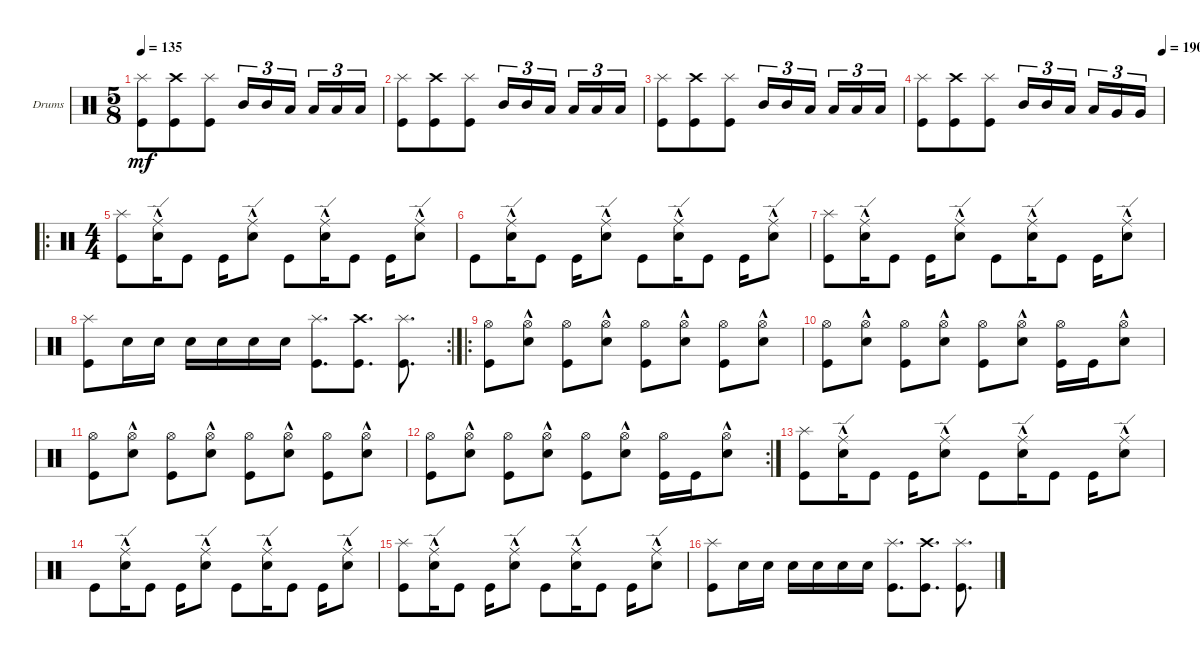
\bracketExtendMode groupsimilarinstruments
\firstSystemTrackNameOrientation horizontal
\otherSystemsTrackNameOrientation horizontal
\track ("Drumkit" "Drums") {instrument percussion}
\staff {score}
\articulation defaults
\ts (5 8)
\tempo 135
\clef neutral
\ks c
("Kick (hit)" "Splash (hit)").8{dy mf} ("Kick (hit)" "Crash high (hit)").8 ("Kick (hit)" "Splash (hit)").8 "Mid Tom (hit)".16{tu (3 2)} "Mid Tom (hit)".16{tu (3 2)} "Low Tom (hit)".16{tu (3 2)} "Low Tom (hit)".16{tu (3 2)} "Low Tom (hit)".16{tu (3 2)} "Low Tom (hit)".16{tu (3 2)} |
("Kick (hit)" "Splash (hit)").8 ("Kick (hit)" "Crash high (hit)").8 ("Kick (hit)" "Splash (hit)").8 "Mid Tom (hit)".16{tu (3 2)} "Mid Tom (hit)".16{tu (3 2)} "Low Tom (hit)".16{tu (3 2)} "Low Tom (hit)".16{tu (3 2)} "Low Tom (hit)".16{tu (3 2)} "Low Tom (hit)".16{tu (3 2)} |
("Kick (hit)" "Splash (hit)").8 ("Kick (hit)" "Crash high (hit)").8 ("Kick (hit)" "Splash (hit)").8 "Mid Tom (hit)".16{tu (3 2)} "Mid Tom (hit)".16{tu (3 2)} "Low Tom (hit)".16{tu (3 2)} "Low Tom (hit)".16{tu (3 2)} "Low Tom (hit)".16{tu (3 2)} "Low Tom (hit)".16{tu (3 2)} |
\tempo (190 1)
("Kick (hit)" "Splash (hit)").8 ("Kick (hit)" "Crash high (hit)").8 ("Kick (hit)" "Splash (hit)").8 "Mid Tom (hit)".16{tu (3 2)} "Mid Tom (hit)".16{tu (3 2)} "Low Tom (hit)".16{tu (3 2)} "Low Tom (hit)".16{tu (3 2)} "Very Low Tom (hit)".16{tu (3 2)} "Very Low Tom (hit)".16{tu (3 2)} |
\ro
\ts (4 4)
("Kick (hit)" "Splash (hit)").8 ("Snare (hit) 2"{hac} "Ride (edge)").16 "Kick (hit)".8 "Kick (hit)".16 ("Snare (hit) 2"{hac} "Ride (edge)").8 "Kick (hit)".8 ("Snare (hit) 2"{hac} "Ride (edge)").16 "Kick (hit)".8 "Kick (hit)".16 ("Snare (hit) 2"{hac} "Ride (edge)").8 |
"Kick (hit)".8 ("Snare (hit) 2"{hac} "Ride (edge)").16 "Kick (hit)".8 "Kick (hit)".16 ("Snare (hit) 2"{hac} "Ride (edge)").8 "Kick (hit)".8 ("Snare (hit) 2"{hac} "Ride (edge)").16 "Kick (hit)".8 "Kick (hit)".16 ("Snare (hit) 2"{hac} "Ride (edge)").8 |
("Kick (hit)" "Splash (hit)").8 ("Snare (hit) 2"{hac} "Ride (edge)").16 "Kick (hit)".8 "Kick (hit)".16 ("Snare (hit) 2"{hac} "Ride (edge)").8 "Kick (hit)".8 ("Snare (hit) 2"{hac} "Ride (edge)").16 "Kick (hit)".8 "Kick (hit)".16 ("Snare (hit) 2"{hac} "Ride (edge)").8 |
\rc 2
("Kick (hit)" "Splash (hit)").8 "Snare (hit) 2".16 "Snare (hit) 2".16 "Snare (hit) 2".16 "Snare (hit) 2".16 "Snare (hit) 2".16 "Snare (hit) 2".16 ("Kick (hit)" "Splash (hit)").8{d} ("Kick (hit)" "Crash high (hit)").8{d} ("Kick (hit)" "Splash (hit)").8{d} |
\ro
("Kick (hit)" "Hi-Hat (open)").8 ("Snare (hit) 2"{hac} "Hi-Hat (open)").8 ("Kick (hit)" "Hi-Hat (open)").8 ("Snare (hit) 2"{hac} "Hi-Hat (open)").8 ("Kick (hit)" "Hi-Hat (open)").8 ("Snare (hit) 2"{hac} "Hi-Hat (open)").8 ("Kick (hit)" "Hi-Hat (open)").8 ("Snare (hit) 2"{hac} "Hi-Hat (open)").8 |
("Kick (hit)" "Hi-Hat (open)").8 ("Snare (hit) 2"{hac} "Hi-Hat (open)").8 ("Kick (hit)" "Hi-Hat (open)").8 ("Snare (hit) 2"{hac} "Hi-Hat (open)").8 ("Kick (hit)" "Hi-Hat (open)").8 ("Snare (hit) 2"{hac} "Hi-Hat (open)").8 ("Kick (hit)" "Hi-Hat (open)").16 "Kick (hit)".16 ("Snare (hit) 2"{hac} "Hi-Hat (open)").8 |
("Kick (hit)" "Hi-Hat (open)").8 ("Snare (hit) 2"{hac} "Hi-Hat (open)").8 ("Kick (hit)" "Hi-Hat (open)").8 ("Snare (hit) 2"{hac} "Hi-Hat (open)").8 ("Kick (hit)" "Hi-Hat (open)").8 ("Snare (hit) 2"{hac} "Hi-Hat (open)").8 ("Kick (hit)" "Hi-Hat (open)").8 ("Snare (hit) 2"{hac} "Hi-Hat (open)").8 |
\rc 2
("Kick (hit)" "Hi-Hat (open)").8 ("Snare (hit) 2"{hac} "Hi-Hat (open)").8 ("Kick (hit)" "Hi-Hat (open)").8 ("Snare (hit) 2"{hac} "Hi-Hat (open)").8 ("Kick (hit)" "Hi-Hat (open)").8 ("Snare (hit) 2"{hac} "Hi-Hat (open)").8 ("Kick (hit)" "Hi-Hat (open)").16 "Kick (hit)".16 ("Snare (hit) 2"{hac} "Hi-Hat (open)").8 |
("Kick (hit)" "Splash (hit)").8 ("Snare (hit) 2"{hac} "Ride (edge)").16 "Kick (hit)".8 "Kick (hit)".16 ("Snare (hit) 2"{hac} "Ride (edge)").8 "Kick (hit)".8 ("Snare (hit) 2"{hac} "Ride (edge)").16 "Kick (hit)".8 "Kick (hit)".16 ("Snare (hit) 2"{hac} "Ride (edge)").8 |
"Kick (hit)".8 ("Snare (hit) 2"{hac} "Ride (edge)").16 "Kick (hit)".8 "Kick (hit)".16 ("Snare (hit) 2"{hac} "Ride (edge)").8 "Kick (hit)".8 ("Snare (hit) 2"{hac} "Ride (edge)").16 "Kick (hit)".8 "Kick (hit)".16 ("Snare (hit) 2"{hac} "Ride (edge)").8 |
("Kick (hit)" "Splash (hit)").8 ("Snare (hit) 2"{hac} "Ride (edge)").16 "Kick (hit)".8 "Kick (hit)".16 ("Snare (hit) 2"{hac} "Ride (edge)").8 "Kick (hit)".8 ("Snare (hit) 2"{hac} "Ride (edge)").16 "Kick (hit)".8 "Kick (hit)".16 ("Snare (hit) 2"{hac} "Ride (edge)").8 |
("Kick (hit)" "Splash (hit)").8 "Snare (hit) 2".16 "Snare (hit) 2".16 "Snare (hit) 2".16 "Snare (hit) 2".16 "Snare (hit) 2".16 "Snare (hit) 2".16 ("Kick (hit)" "Splash (hit)").8{d} ("Kick (hit)" "Crash high (hit)").8{d} ("Kick (hit)" "Splash (hit)").8{d}
